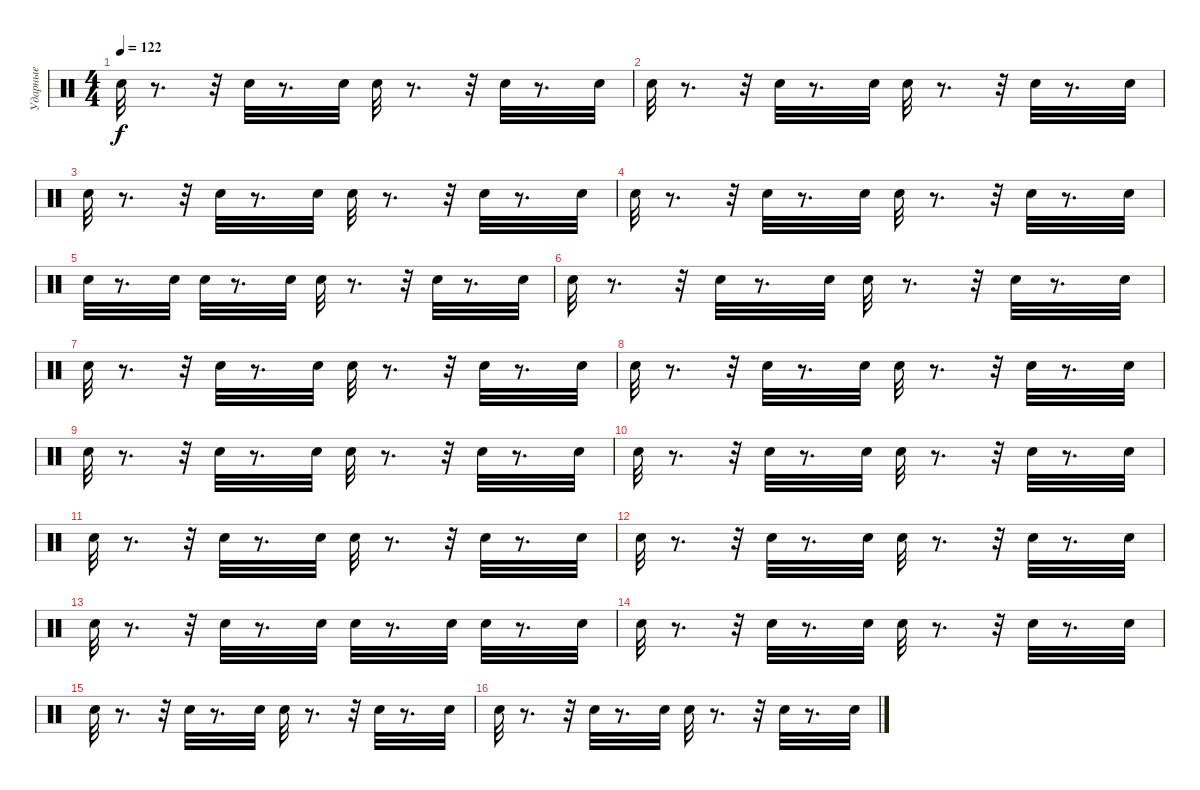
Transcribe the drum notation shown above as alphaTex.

\track ("Ударные" "Ударные") {instrument percussion}
\staff {score}
\articulation defaults
\ts (4 4)
\tempo 122
\clef neutral
\ks c "Snare (hit) 2".32{dy f}
r.8{d} r.32 "Snare (hit) 2".32 r.8{d} "Snare (hit) 2".32 "Snare (hit) 2".32 r.8{d} r.32 "Snare (hit) 2".32 r.8{d} "Snare (hit) 2".32 |
"Snare (hit) 2".32 r.8{d} r.32 "Snare (hit) 2".32 r.8{d} "Snare (hit) 2".32 "Snare (hit) 2".32 r.8{d} r.32 "Snare (hit) 2".32 r.8{d} "Snare (hit) 2".32 |
"Snare (hit) 2".32 r.8{d} r.32 "Snare (hit) 2".32 r.8{d} "Snare (hit) 2".32 "Snare (hit) 2".32 r.8{d} r.32 "Snare (hit) 2".32 r.8{d} "Snare (hit) 2".32 |
"Snare (hit) 2".32 r.8{d} r.32 "Snare (hit) 2".32 r.8{d} "Snare (hit) 2".32 "Snare (hit) 2".32 r.8{d} r.32 "Snare (hit) 2".32 r.8{d} "Snare (hit) 2".32 |
"Snare (hit) 2".32 r.8{d} "Snare (hit) 2".32 "Snare (hit) 2".32 r.8{d} "Snare (hit) 2".32 "Snare (hit) 2".32 r.8{d} r.32 "Snare (hit) 2".32 r.8{d} "Snare (hit) 2".32 |
"Snare (hit) 2".32 r.8{d} r.32 "Snare (hit) 2".32 r.8{d} "Snare (hit) 2".32 "Snare (hit) 2".32 r.8{d} r.32 "Snare (hit) 2".32 r.8{d} "Snare (hit) 2".32 |
"Snare (hit) 2".32 r.8{d} r.32 "Snare (hit) 2".32 r.8{d} "Snare (hit) 2".32 "Snare (hit) 2".32 r.8{d} r.32 "Snare (hit) 2".32 r.8{d} "Snare (hit) 2".32 |
"Snare (hit) 2".32 r.8{d} r.32 "Snare (hit) 2".32 r.8{d} "Snare (hit) 2".32 "Snare (hit) 2".32 r.8{d} r.32 "Snare (hit) 2".32 r.8{d} "Snare (hit) 2".32 |
"Snare (hit) 2".32 r.8{d} r.32 "Snare (hit) 2".32 r.8{d} "Snare (hit) 2".32 "Snare (hit) 2".32 r.8{d} r.32 "Snare (hit) 2".32 r.8{d} "Snare (hit) 2".32 |
"Snare (hit) 2".32 r.8{d} r.32 "Snare (hit) 2".32 r.8{d} "Snare (hit) 2".32 "Snare (hit) 2".32 r.8{d} r.32 "Snare (hit) 2".32 r.8{d} "Snare (hit) 2".32 |
"Snare (hit) 2".32 r.8{d} r.32 "Snare (hit) 2".32 r.8{d} "Snare (hit) 2".32 "Snare (hit) 2".32 r.8{d} r.32 "Snare (hit) 2".32 r.8{d} "Snare (hit) 2".32 |
"Snare (hit) 2".32 r.8{d} r.32 "Snare (hit) 2".32 r.8{d} "Snare (hit) 2".32 "Snare (hit) 2".32 r.8{d} r.32 "Snare (hit) 2".32 r.8{d} "Snare (hit) 2".32 |
"Snare (hit) 2".32 r.8{d} r.32 "Snare (hit) 2".32 r.8{d} "Snare (hit) 2".32 "Snare (hit) 2".32 r.8{d} "Snare (hit) 2".32 "Snare (hit) 2".32 r.8{d} "Snare (hit) 2".32 |
"Snare (hit) 2".32 r.8{d} r.32 "Snare (hit) 2".32 r.8{d} "Snare (hit) 2".32 "Snare (hit) 2".32 r.8{d} r.32 "Snare (hit) 2".32 r.8{d} "Snare (hit) 2".32 |
"Snare (hit) 2".32 r.8{d} r.32 "Snare (hit) 2".32 r.8{d} "Snare (hit) 2".32 "Snare (hit) 2".32 r.8{d} r.32 "Snare (hit) 2".32 r.8{d} "Snare (hit) 2".32 |
"Snare (hit) 2".32 r.8{d} r.32 "Snare (hit) 2".32 r.8{d} "Snare (hit) 2".32 "Snare (hit) 2".32 r.8{d} r.32 "Snare (hit) 2".32 r.8{d} "Snare (hit) 2".32
